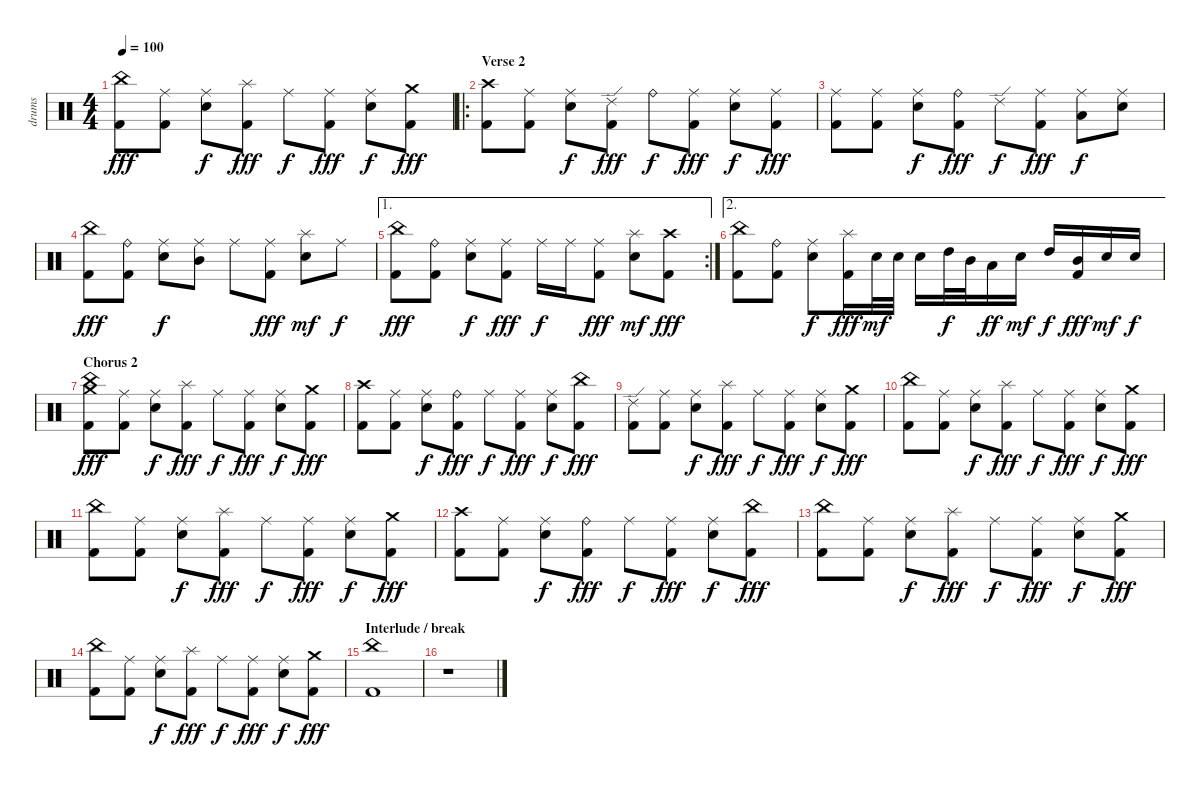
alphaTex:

\track ("drums" "drums") {instrument percussion}
\staff {score}
\articulation defaults
\ts (4 4)
\tempo 100
\clef neutral
\ks c
("China (hit)" "Kick (hit) 2").8{dy fff} ("Ride (middle)" "Kick (hit) 2").8 ("Ride (middle)" "Electric Snare (hit)").8{dy f} ("Splash (hit)" "Kick (hit) 2").8{dy fff} "Ride (middle)".8{dy f} ("Ride (middle)" "Kick (hit) 2").8{dy fff} ("Ride (middle)" "Electric Snare (hit)").8{dy f} ("Crash medium (hit)" "Kick (hit) 2").8{dy fff} |
\ro
\section ("" "Verse 2")
("Crash high (hit)" "Kick (hit) 2").8 ("Ride (middle)" "Kick (hit) 2").8 ("Ride (middle)" "Electric Snare (hit)").8{dy f} ("Ride (edge) 2" "Kick (hit) 2").8{dy fff} "Ride (bell)".8{dy f} ("Ride (middle)" "Kick (hit) 2").8{dy fff} ("Ride (middle)" "Electric Snare (hit)").8{dy f} ("Ride (middle)" "Kick (hit) 2").8{dy fff} |
("Ride (middle)" "Kick (hit) 2").8 ("Ride (middle)" "Kick (hit) 2").8 ("Ride (middle)" "Electric Snare (hit)").8{dy f} ("Ride (bell)" "Kick (hit) 2").8{dy fff} "Ride (edge) 2".8{dy f} ("Ride (middle)" "Kick (hit) 2").8{dy fff} ("Ride (middle)" "Low Tom (hit)").8{dy f} ("Ride (middle)" "Electric Snare (hit)").8 |
("China (hit)" "Kick (hit) 2").8{dy fff} ("Ride (bell)" "Kick (hit) 2").8 ("Ride (middle)" "Electric Snare (hit)").8{dy f} ("Ride (middle)" "Mid Tom (hit)").8 "Ride (middle)".8 ("Ride (middle)" "Kick (hit) 2").8{dy fff} ("Splash (hit)" "Electric Snare (hit)").8{dy mf} "Ride (middle)".8{dy f} |
\ae 1
\rc 2
("China (hit)" "Kick (hit) 2").8{dy fff} ("Ride (bell)" "Kick (hit) 2").8 ("Ride (middle)" "Electric Snare (hit)").8{dy f} ("Ride (middle)" "Kick (hit) 2").8{dy fff} "Ride (middle)".16{dy f} "Ride (middle)".16 ("Ride (middle)" "Kick (hit) 2").8{dy fff} ("Splash (hit)" "Electric Snare (hit)").8{dy mf} ("Crash high (hit)" "Kick (hit) 2").8{dy fff} |
\ae 2
("China (hit)" "Kick (hit) 2").8 ("Ride (bell)" "Kick (hit) 2").8 ("Ride (middle)" "Electric Snare (hit)").8{dy f} ("Splash (hit)" "Kick (hit) 2").16{dy fff} "Electric Snare (hit)".32{dy mf} "Electric Snare (hit)".32 "Electric Snare (hit)".16 "High Tom (hit)".32{dy f} "Mid Tom (hit)".32 "Low Tom (hit)".16{dy ff} "Electric Snare (hit)".16{dy mf} "High Tom (hit)".16{dy f} ("Mid Tom (hit)" "Kick (hit) 2").16{dy fff} "Electric Snare (hit)".16{dy mf} "Electric Snare (hit)".16{dy f} |
\section ("" "Chorus 2")
("China (hit)" "Crash medium (hit)" "Kick (hit) 2").8{dy fff} ("Ride (middle)" "Kick (hit) 2").8 ("Ride (middle)" "Electric Snare (hit)").8{dy f} ("Splash (hit)" "Kick (hit) 2").8{dy fff} "Ride (middle)".8{dy f} ("Ride (middle)" "Kick (hit) 2").8{dy fff} ("Ride (middle)" "Electric Snare (hit)").8{dy f} ("Crash medium (hit)" "Kick (hit) 2").8{dy fff} |
("Crash high (hit)" "Kick (hit) 2").8 ("Ride (middle)" "Kick (hit) 2").8 ("Ride (middle)" "Electric Snare (hit)").8{dy f} ("Ride (bell)" "Kick (hit) 2").8{dy fff} "Ride (middle)".8{dy f} ("Ride (middle)" "Kick (hit) 2").8{dy fff} ("Ride (middle)" "Electric Snare (hit)").8{dy f} ("China (hit)" "Kick (hit) 2").8{dy fff} |
("Ride (edge) 2" "Kick (hit) 2").8 ("Ride (middle)" "Kick (hit) 2").8 ("Ride (middle)" "Electric Snare (hit)").8{dy f} ("Splash (hit)" "Kick (hit) 2").8{dy fff} "Ride (middle)".8{dy f} ("Ride (middle)" "Kick (hit) 2").8{dy fff} ("Ride (middle)" "Electric Snare (hit)").8{dy f} ("Crash medium (hit)" "Kick (hit) 2").8{dy fff} |
("China (hit)" "Kick (hit) 2").8 ("Ride (middle)" "Kick (hit) 2").8 ("Ride (middle)" "Electric Snare (hit)").8{dy f} ("Splash (hit)" "Kick (hit) 2").8{dy fff} "Ride (middle)".8{dy f} ("Ride (middle)" "Kick (hit) 2").8{dy fff} ("Ride (middle)" "Electric Snare (hit)").8{dy f} ("Crash medium (hit)" "Kick (hit) 2").8{dy fff} |
("China (hit)" "Kick (hit) 2").8 ("Ride (middle)" "Kick (hit) 2").8 ("Ride (middle)" "Electric Snare (hit)").8{dy f} ("Splash (hit)" "Kick (hit) 2").8{dy fff} "Ride (middle)".8{dy f} ("Ride (middle)" "Kick (hit) 2").8{dy fff} ("Ride (middle)" "Electric Snare (hit)").8{dy f} ("Crash medium (hit)" "Kick (hit) 2").8{dy fff} |
("Crash high (hit)" "Kick (hit) 2").8 ("Ride (middle)" "Kick (hit) 2").8 ("Ride (middle)" "Electric Snare (hit)").8{dy f} ("Ride (bell)" "Kick (hit) 2").8{dy fff} "Ride (middle)".8{dy f} ("Ride (middle)" "Kick (hit) 2").8{dy fff} ("Ride (middle)" "Electric Snare (hit)").8{dy f} ("China (hit)" "Kick (hit) 2").8{dy fff} |
("China (hit)" "Kick (hit) 2").8 ("Ride (middle)" "Kick (hit) 2").8 ("Ride (middle)" "Electric Snare (hit)").8{dy f} ("Splash (hit)" "Kick (hit) 2").8{dy fff} "Ride (middle)".8{dy f} ("Ride (middle)" "Kick (hit) 2").8{dy fff} ("Ride (middle)" "Electric Snare (hit)").8{dy f} ("Crash medium (hit)" "Kick (hit) 2").8{dy fff} |
("China (hit)" "Kick (hit) 2").8 ("Ride (middle)" "Kick (hit) 2").8 ("Ride (middle)" "Electric Snare (hit)").8{dy f} ("Splash (hit)" "Kick (hit) 2").8{dy fff} "Ride (middle)".8{dy f} ("Ride (middle)" "Kick (hit) 2").8{dy fff} ("Ride (middle)" "Electric Snare (hit)").8{dy f} ("Crash medium (hit)" "Kick (hit) 2").8{dy fff} |
\section ("" "Interlude / break")
("China (hit)" "Kick (hit) 2").1 |
r.1
